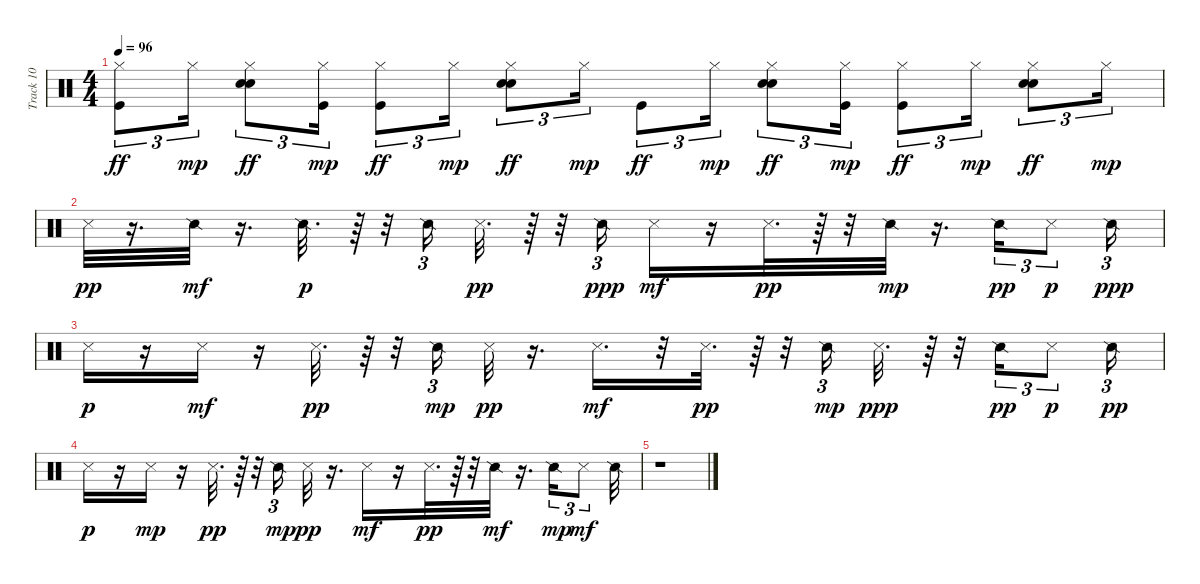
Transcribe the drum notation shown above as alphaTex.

\track ("Track 10" "Track 10") {instrument percussion}
\staff {score}
\articulation defaults
\ts (4 4)
\tempo 96
\clef neutral
\ks c
("Kick (hit)" "Hi-Hat (closed)").8{tu (3 2) dy ff} "Hi-Hat (closed)".16{tu (3 2) dy mp} ("Snare (hit) 2" "Hand Clap (hit)" "Hi-Hat (closed)").8{tu (3 2) dy ff} ("Kick (hit)" "Hi-Hat (closed)").16{tu (3 2) dy mp} ("Kick (hit)" "Hi-Hat (closed)").8{tu (3 2) dy ff} "Hi-Hat (closed)".16{tu (3 2) dy mp} ("Snare (hit) 2" "Hand Clap (hit)" "Hi-Hat (closed)").8{tu (3 2) dy ff} "Hi-Hat (closed)".16{tu (3 2) dy mp} "Kick (hit)".8{tu (3 2) dy ff} "Hi-Hat (closed)".16{tu (3 2) dy mp} ("Snare (hit) 2" "Hand Clap (hit)" "Hi-Hat (closed)").8{tu (3 2) dy ff} ("Kick (hit)" "Hi-Hat (closed)").16{tu (3 2) dy mp} ("Kick (hit)" "Hi-Hat (closed)").8{tu (3 2) dy ff} "Hi-Hat (closed)".16{tu (3 2) dy mp} ("Snare (hit) 2" "Hand Clap (hit)" "Hi-Hat (closed)").8{tu (3 2) dy ff} "Hi-Hat (closed)".16{tu (3 2) dy mp} |
"Metronome (hit)".32{dy pp} r.16{d} "Snare (side stick) 2".32{dy mf} r.16{d} "Snare (side stick) 2".32{d dy p} r.64 r.32 "Snare (side stick) 2".16{tu (3 2)} "Metronome (hit)".32{d dy pp} r.64 r.32 "Snare (side stick) 2".16{tu (3 2) dy ppp} "Metronome (hit)".16{dy mf} r.16 "Metronome (hit)".32{d dy pp} r.64 r.32 "Snare (side stick) 2".32{dy mp} r.16{d} "Snare (side stick) 2".16{tu (3 2) dy pp} "Metronome (hit)".8{tu (3 2) dy p} "Snare (side stick) 2".16{tu (3 2) dy ppp} |
"Metronome (hit)".16{dy p} r.16 "Metronome (hit)".16{dy mf} r.16 "Metronome (hit)".32{d dy pp} r.64 r.32 "Snare (side stick) 2".16{tu (3 2) dy mp} "Metronome (hit)".32{dy pp} r.16{d} "Metronome (hit)".16{d dy mf} r.32 "Metronome (hit)".32{d dy pp} r.64 r.32 "Snare (side stick) 2".16{tu (3 2) dy mp} "Metronome (hit)".32{d dy ppp} r.64 r.32 "Snare (side stick) 2".16{tu (3 2) dy pp} "Metronome (hit)".8{tu (3 2) dy p} "Snare (side stick) 2".16{tu (3 2) dy pp} |
"Metronome (hit)".16{dy p} r.16 "Metronome (hit)".16{dy mp} r.16 "Metronome (hit)".32{d dy pp} r.64 r.32 "Snare (side stick) 2".16{tu (3 2) dy mp} "Metronome (hit)".32{dy pp} r.16{d} "Metronome (hit)".16{dy mf} r.16 "Metronome (hit)".32{d dy pp} r.64 r.32 "Snare (side stick) 2".32{dy mf} r.16{d} "Snare (side stick) 2".16{tu (3 2) dy mp} "Metronome (hit)".8{tu (3 2) dy mf} "Snare (side stick) 2".32 |
r.1
